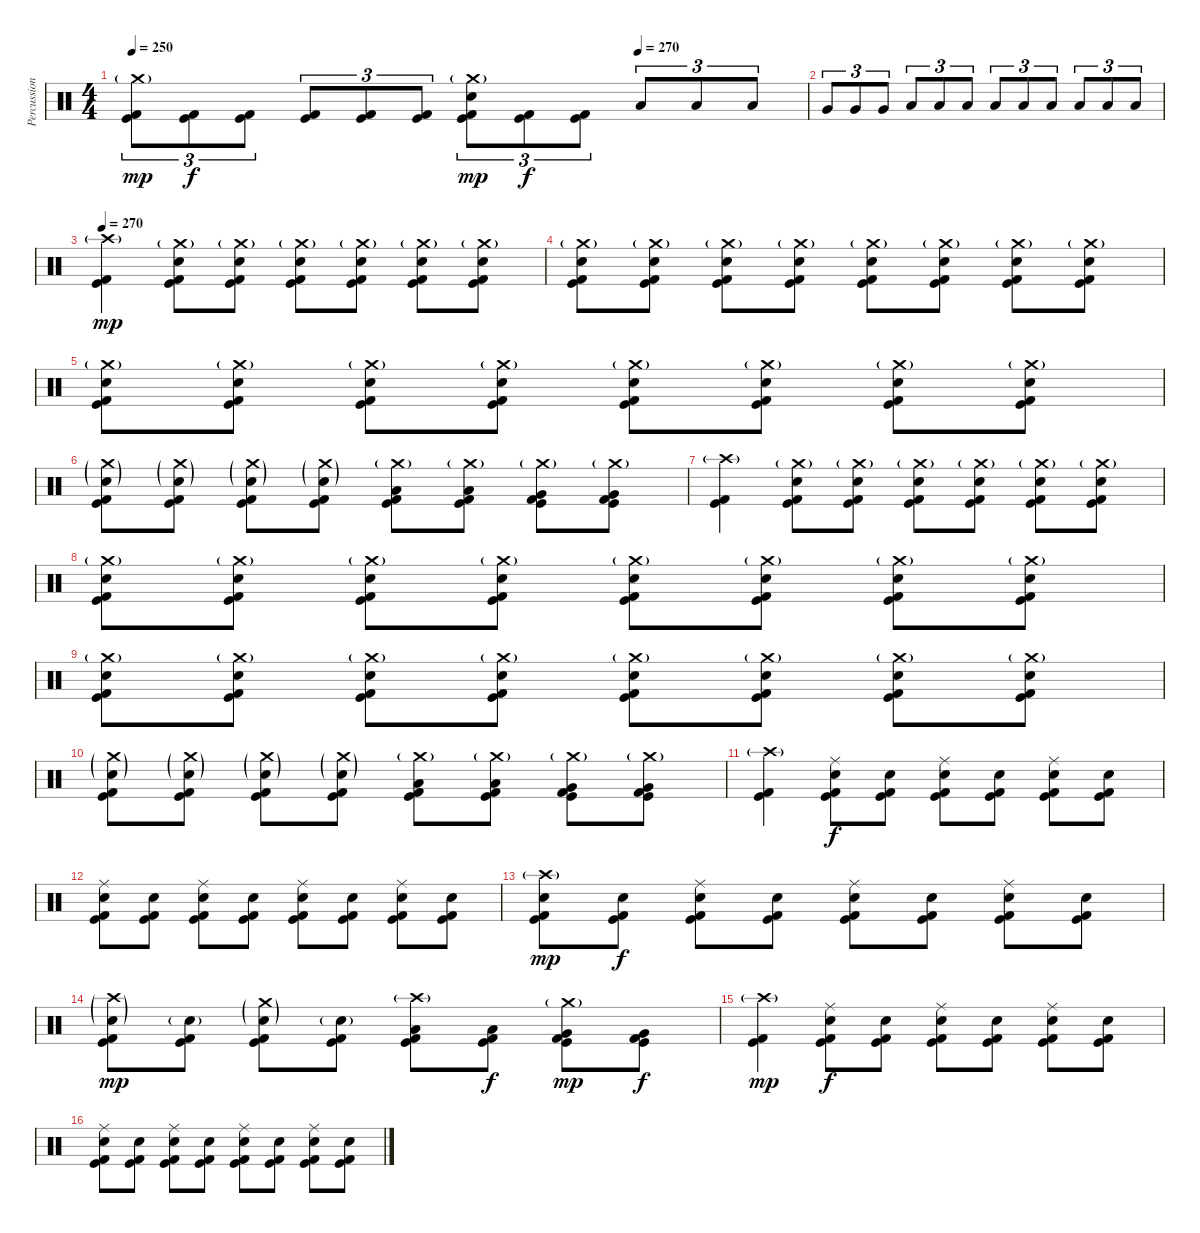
\track ("Percussion" "Percussion") {instrument percussion}
\staff {score}
\articulation defaults
\ts (4 4)
\tempo 250
\tempo (270 0.75)
\clef neutral
\ks c
("Crash medium (hit)"{g} "Kick (hit)" "Kick (hit) 2").8{tu (3 2) dy mp} ("Kick (hit)" "Kick (hit) 2").8{tu (3 2) dy f} ("Kick (hit)" "Kick (hit) 2").8{tu (3 2)} ("Kick (hit)" "Kick (hit) 2").8{tu (3 2)} ("Kick (hit)" "Kick (hit) 2").8{tu (3 2)} ("Kick (hit)" "Kick (hit) 2").8{tu (3 2)} ("Crash medium (hit)"{g} "Electric Snare (hit)" "Kick (hit)" "Kick (hit) 2").8{tu (3 2) dy mp} ("Kick (hit)" "Kick (hit) 2").8{tu (3 2) dy f} ("Kick (hit)" "Kick (hit) 2").8{tu (3 2)} "Low Tom (hit)".8{tu (3 2)} "Low Tom (hit)".8{tu (3 2)} "Low Tom (hit)".8{tu (3 2)} |
"Very Low Tom (hit)".8{tu (3 2)} "Very Low Tom (hit)".8{tu (3 2)} "Very Low Tom (hit)".8{tu (3 2)} "Low Tom (hit)".8{tu (3 2)} "Low Tom (hit)".8{tu (3 2)} "Low Tom (hit)".8{tu (3 2)} "Low Floor Tom (hit)".8{tu (3 2)} "Low Floor Tom (hit)".8{tu (3 2)} "Low Floor Tom (hit)".8{tu (3 2)} "Low Tom (hit)".8{tu (3 2)} "Low Tom (hit)".8{tu (3 2)} "Low Tom (hit)".8{tu (3 2)} |
\tempo 270
("Crash high (hit)"{g} "Kick (hit)" "Kick (hit) 2").4{dy mp} ("Crash medium (hit)"{g} "Electric Snare (hit)" "Kick (hit)" "Kick (hit) 2").8 ("Crash medium (hit)"{g} "Electric Snare (hit)" "Kick (hit)" "Kick (hit) 2").8 ("Crash medium (hit)"{g} "Electric Snare (hit)" "Kick (hit)" "Kick (hit) 2").8 ("Crash medium (hit)"{g} "Electric Snare (hit)" "Kick (hit)" "Kick (hit) 2").8 ("Crash medium (hit)"{g} "Electric Snare (hit)" "Kick (hit)" "Kick (hit) 2").8 ("Crash medium (hit)"{g} "Electric Snare (hit)" "Kick (hit)" "Kick (hit) 2").8 |
("Crash medium (hit)"{g} "Electric Snare (hit)" "Kick (hit)" "Kick (hit) 2").8 ("Crash medium (hit)"{g} "Electric Snare (hit)" "Kick (hit)" "Kick (hit) 2").8 ("Crash medium (hit)"{g} "Electric Snare (hit)" "Kick (hit)" "Kick (hit) 2").8 ("Crash medium (hit)"{g} "Electric Snare (hit)" "Kick (hit)" "Kick (hit) 2").8 ("Crash medium (hit)"{g} "Electric Snare (hit)" "Kick (hit)" "Kick (hit) 2").8 ("Crash medium (hit)"{g} "Electric Snare (hit)" "Kick (hit)" "Kick (hit) 2").8 ("Crash medium (hit)"{g} "Electric Snare (hit)" "Kick (hit)" "Kick (hit) 2").8 ("Crash medium (hit)"{g} "Electric Snare (hit)" "Kick (hit)" "Kick (hit) 2").8 |
("Crash medium (hit)"{g} "Electric Snare (hit)" "Kick (hit)" "Kick (hit) 2").8 ("Crash medium (hit)"{g} "Electric Snare (hit)" "Kick (hit)" "Kick (hit) 2").8 ("Crash medium (hit)"{g} "Electric Snare (hit)" "Kick (hit)" "Kick (hit) 2").8 ("Crash medium (hit)"{g} "Electric Snare (hit)" "Kick (hit)" "Kick (hit) 2").8 ("Crash medium (hit)"{g} "Electric Snare (hit)" "Kick (hit)" "Kick (hit) 2").8 ("Crash medium (hit)"{g} "Electric Snare (hit)" "Kick (hit)" "Kick (hit) 2").8 ("Crash medium (hit)"{g} "Electric Snare (hit)" "Kick (hit)" "Kick (hit) 2").8 ("Crash medium (hit)"{g} "Electric Snare (hit)" "Kick (hit)" "Kick (hit) 2").8 |
("Crash medium (hit)"{g} "Electric Snare (hit)"{g} "Kick (hit)" "Kick (hit) 2").8 ("Crash medium (hit)"{g} "Electric Snare (hit)"{g} "Kick (hit)" "Kick (hit) 2").8 ("Crash medium (hit)"{g} "Electric Snare (hit)"{g} "Kick (hit)" "Kick (hit) 2").8 ("Crash medium (hit)"{g} "Electric Snare (hit)"{g} "Kick (hit)" "Kick (hit) 2").8 ("Crash medium (hit)"{g} "Low Tom (hit)" "Kick (hit)" "Kick (hit) 2").8 ("Crash medium (hit)"{g} "Low Tom (hit)" "Kick (hit)" "Kick (hit) 2").8 ("Crash medium (hit)"{g} "Very Low Tom (hit)" "Kick (hit)" "Kick (hit) 2").8 ("Crash medium (hit)"{g} "Very Low Tom (hit)" "Kick (hit)" "Kick (hit) 2").8 |
("Crash high (hit)"{g} "Kick (hit)" "Kick (hit) 2").4 ("Crash medium (hit)"{g} "Electric Snare (hit)" "Kick (hit)" "Kick (hit) 2").8 ("Crash medium (hit)"{g} "Electric Snare (hit)" "Kick (hit)" "Kick (hit) 2").8 ("Crash medium (hit)"{g} "Electric Snare (hit)" "Kick (hit)" "Kick (hit) 2").8 ("Crash medium (hit)"{g} "Electric Snare (hit)" "Kick (hit)" "Kick (hit) 2").8 ("Crash medium (hit)"{g} "Electric Snare (hit)" "Kick (hit)" "Kick (hit) 2").8 ("Crash medium (hit)"{g} "Electric Snare (hit)" "Kick (hit)" "Kick (hit) 2").8 |
("Crash medium (hit)"{g} "Electric Snare (hit)" "Kick (hit)" "Kick (hit) 2").8 ("Crash medium (hit)"{g} "Electric Snare (hit)" "Kick (hit)" "Kick (hit) 2").8 ("Crash medium (hit)"{g} "Electric Snare (hit)" "Kick (hit)" "Kick (hit) 2").8 ("Crash medium (hit)"{g} "Electric Snare (hit)" "Kick (hit)" "Kick (hit) 2").8 ("Crash medium (hit)"{g} "Electric Snare (hit)" "Kick (hit)" "Kick (hit) 2").8 ("Crash medium (hit)"{g} "Electric Snare (hit)" "Kick (hit)" "Kick (hit) 2").8 ("Crash medium (hit)"{g} "Electric Snare (hit)" "Kick (hit)" "Kick (hit) 2").8 ("Crash medium (hit)"{g} "Electric Snare (hit)" "Kick (hit)" "Kick (hit) 2").8 |
("Crash medium (hit)"{g} "Electric Snare (hit)" "Kick (hit)" "Kick (hit) 2").8 ("Crash medium (hit)"{g} "Electric Snare (hit)" "Kick (hit)" "Kick (hit) 2").8 ("Crash medium (hit)"{g} "Electric Snare (hit)" "Kick (hit)" "Kick (hit) 2").8 ("Crash medium (hit)"{g} "Electric Snare (hit)" "Kick (hit)" "Kick (hit) 2").8 ("Crash medium (hit)"{g} "Electric Snare (hit)" "Kick (hit)" "Kick (hit) 2").8 ("Crash medium (hit)"{g} "Electric Snare (hit)" "Kick (hit)" "Kick (hit) 2").8 ("Crash medium (hit)"{g} "Electric Snare (hit)" "Kick (hit)" "Kick (hit) 2").8 ("Crash medium (hit)"{g} "Electric Snare (hit)" "Kick (hit)" "Kick (hit) 2").8 |
("Crash medium (hit)"{g} "Electric Snare (hit)"{g} "Kick (hit)" "Kick (hit) 2").8 ("Crash medium (hit)"{g} "Electric Snare (hit)"{g} "Kick (hit)" "Kick (hit) 2").8 ("Crash medium (hit)"{g} "Electric Snare (hit)"{g} "Kick (hit)" "Kick (hit) 2").8 ("Crash medium (hit)"{g} "Electric Snare (hit)"{g} "Kick (hit)" "Kick (hit) 2").8 ("Crash medium (hit)"{g} "Low Tom (hit)" "Kick (hit)" "Kick (hit) 2").8 ("Crash medium (hit)"{g} "Low Tom (hit)" "Kick (hit)" "Kick (hit) 2").8 ("Crash medium (hit)"{g} "Very Low Tom (hit)" "Kick (hit)" "Kick (hit) 2").8 ("Crash medium (hit)"{g} "Very Low Tom (hit)" "Kick (hit)" "Kick (hit) 2").8 |
("Crash high (hit)"{g} "Kick (hit)" "Kick (hit) 2").4 ("Ride (middle)" "Electric Snare (hit)" "Kick (hit)" "Kick (hit) 2").8{dy f} ("Electric Snare (hit)" "Kick (hit)" "Kick (hit) 2").8 ("Ride (middle)" "Electric Snare (hit)" "Kick (hit)" "Kick (hit) 2").8 ("Electric Snare (hit)" "Kick (hit)" "Kick (hit) 2").8 ("Ride (middle)" "Electric Snare (hit)" "Kick (hit)" "Kick (hit) 2").8 ("Electric Snare (hit)" "Kick (hit)" "Kick (hit) 2").8 |
("Ride (middle)" "Electric Snare (hit)" "Kick (hit)" "Kick (hit) 2").8 ("Electric Snare (hit)" "Kick (hit)" "Kick (hit) 2").8 ("Ride (middle)" "Electric Snare (hit)" "Kick (hit)" "Kick (hit) 2").8 ("Electric Snare (hit)" "Kick (hit)" "Kick (hit) 2").8 ("Ride (middle)" "Electric Snare (hit)" "Kick (hit)" "Kick (hit) 2").8 ("Electric Snare (hit)" "Kick (hit)" "Kick (hit) 2").8 ("Ride (middle)" "Electric Snare (hit)" "Kick (hit)" "Kick (hit) 2").8 ("Electric Snare (hit)" "Kick (hit)" "Kick (hit) 2").8 |
("Crash high (hit)"{g} "Electric Snare (hit)" "Kick (hit)" "Kick (hit) 2").8{dy mp} ("Electric Snare (hit)" "Kick (hit)" "Kick (hit) 2").8{dy f} ("Ride (middle)" "Electric Snare (hit)" "Kick (hit)" "Kick (hit) 2").8 ("Electric Snare (hit)" "Kick (hit)" "Kick (hit) 2").8 ("Ride (middle)" "Electric Snare (hit)" "Kick (hit)" "Kick (hit) 2").8 ("Electric Snare (hit)" "Kick (hit)" "Kick (hit) 2").8 ("Ride (middle)" "Electric Snare (hit)" "Kick (hit)" "Kick (hit) 2").8 ("Electric Snare (hit)" "Kick (hit)" "Kick (hit) 2").8 |
("Crash high (hit)"{g} "Electric Snare (hit)"{g} "Kick (hit)" "Kick (hit) 2").8{dy mp} ("Electric Snare (hit)"{g} "Kick (hit)" "Kick (hit) 2").8 ("Crash medium (hit)"{g} "Electric Snare (hit)"{g} "Kick (hit)" "Kick (hit) 2").8 ("Electric Snare (hit)"{g} "Kick (hit)" "Kick (hit) 2").8 ("Crash high (hit)"{g} "Low Tom (hit)" "Kick (hit)" "Kick (hit) 2").8 ("Low Tom (hit)" "Kick (hit)" "Kick (hit) 2").8{dy f} ("Crash medium (hit)"{g} "Very Low Tom (hit)" "Kick (hit)" "Kick (hit) 2").8{dy mp} ("Very Low Tom (hit)" "Kick (hit)" "Kick (hit) 2").8{dy f} |
("Crash high (hit)"{g} "Kick (hit)" "Kick (hit) 2").4{dy mp} ("Ride (middle)" "Electric Snare (hit)" "Kick (hit)" "Kick (hit) 2").8{dy f} ("Electric Snare (hit)" "Kick (hit)" "Kick (hit) 2").8 ("Ride (middle)" "Electric Snare (hit)" "Kick (hit)" "Kick (hit) 2").8 ("Electric Snare (hit)" "Kick (hit)" "Kick (hit) 2").8 ("Ride (middle)" "Electric Snare (hit)" "Kick (hit)" "Kick (hit) 2").8 ("Electric Snare (hit)" "Kick (hit)" "Kick (hit) 2").8 |
("Ride (middle)" "Electric Snare (hit)" "Kick (hit)" "Kick (hit) 2").8 ("Electric Snare (hit)" "Kick (hit)" "Kick (hit) 2").8 ("Ride (middle)" "Electric Snare (hit)" "Kick (hit)" "Kick (hit) 2").8 ("Electric Snare (hit)" "Kick (hit)" "Kick (hit) 2").8 ("Ride (middle)" "Electric Snare (hit)" "Kick (hit)" "Kick (hit) 2").8 ("Electric Snare (hit)" "Kick (hit)" "Kick (hit) 2").8 ("Ride (middle)" "Electric Snare (hit)" "Kick (hit)" "Kick (hit) 2").8 ("Electric Snare (hit)" "Kick (hit)" "Kick (hit) 2").8
